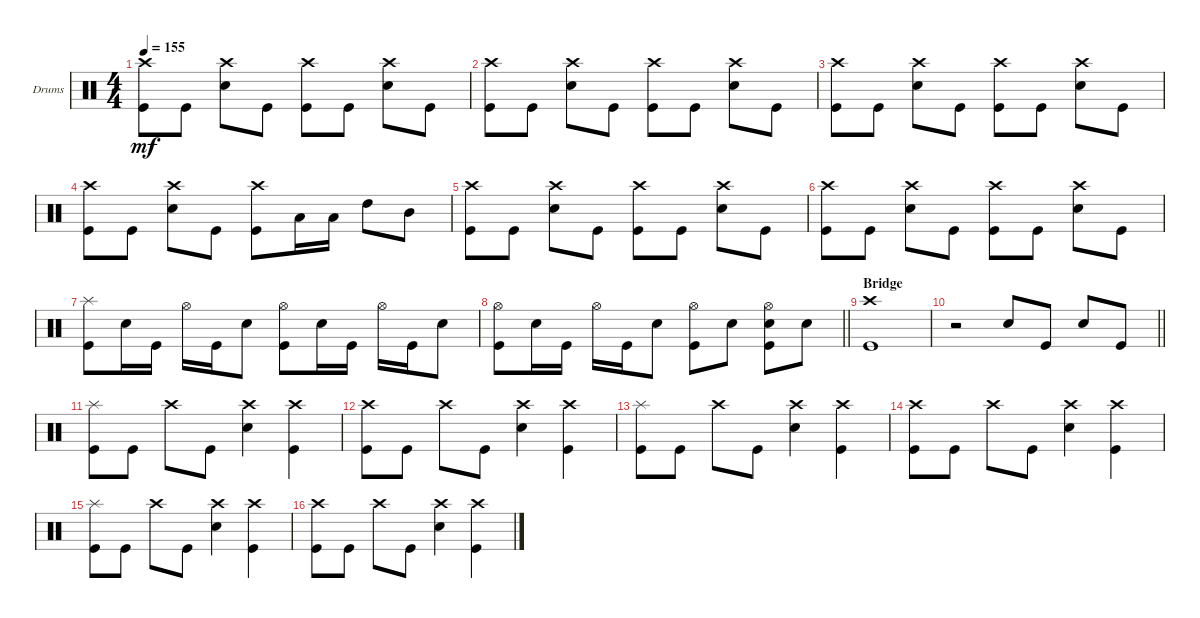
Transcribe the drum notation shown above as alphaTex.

\defaultSystemsLayout 4
\bracketExtendMode groupsimilarinstruments
\firstSystemTrackNameOrientation horizontal
\otherSystemsTrackNameOrientation horizontal
\track ("Drums" "Drums") {instrument percussion}
\staff {score}
\articulation defaults
\ts (4 4)
\tempo 155
\clef neutral
\ks c
("Kick (hit)" "Crash high (hit)").8{dy mf} "Kick (hit)".8 ("Snare (hit) 2" "Crash high (hit)").8 "Kick (hit)".8 ("Kick (hit)" "Crash high (hit)").8 "Kick (hit)".8 ("Snare (hit) 2" "Crash high (hit)").8 "Kick (hit)".8 |
("Kick (hit)" "Crash high (hit)").8 "Kick (hit)".8 ("Snare (hit) 2" "Crash high (hit)").8 "Kick (hit)".8 ("Kick (hit)" "Crash high (hit)").8 "Kick (hit)".8 ("Snare (hit) 2" "Crash high (hit)").8 "Kick (hit)".8 |
("Kick (hit)" "Crash high (hit)").8 "Kick (hit)".8 ("Snare (hit) 2" "Crash high (hit)").8 "Kick (hit)".8 ("Kick (hit)" "Crash high (hit)").8 "Kick (hit)".8 ("Snare (hit) 2" "Crash high (hit)").8 "Kick (hit)".8 |
("Kick (hit)" "Crash high (hit)").8 "Kick (hit)".8 ("Snare (hit) 2" "Crash high (hit)").8 "Kick (hit)".8 ("Kick (hit)" "Crash high (hit)").8 "Low Tom (hit)".16 "Low Tom (hit)".16 "High Tom (hit)".8 "Mid Tom (hit)".8 |
("Kick (hit)" "Crash high (hit)").8 "Kick (hit)".8 ("Snare (hit) 2" "Crash high (hit)").8 "Kick (hit)".8 ("Kick (hit)" "Crash high (hit)").8 "Kick (hit)".8 ("Snare (hit) 2" "Crash high (hit)").8 "Kick (hit)".8 |
("Kick (hit)" "Crash high (hit)").8 "Kick (hit)".8 ("Snare (hit) 2" "Crash high (hit)").8 "Kick (hit)".8 ("Kick (hit)" "Crash high (hit)").8 "Kick (hit)".8 ("Snare (hit) 2" "Crash high (hit)").8 "Kick (hit)".8 |
("Kick (hit)" "Splash (hit)").8 "Snare (hit) 2".16 "Kick (hit)".16 "Hi-Hat (open)".16 "Kick (hit)".16 "Snare (hit) 2".8 ("Kick (hit)" "Hi-Hat (open)").8 "Snare (hit) 2".16 "Kick (hit)".16 "Hi-Hat (open)".16 "Kick (hit)".16 "Snare (hit) 2".8 |
\barLineRight lightlight
("Kick (hit)" "Hi-Hat (open)").8 "Snare (hit) 2".16 "Kick (hit)".16 "Hi-Hat (open)".16 "Kick (hit)".16 "Snare (hit) 2".8 ("Kick (hit)" "Hi-Hat (open)").8 "Snare (hit) 2".8 ("Snare (hit) 2" "Kick (hit)" "Hi-Hat (open)").8 "Snare (hit) 2".8 |
\section ("" "Bridge")
("Kick (hit)" "Crash high (hit)").1 |
\barLineRight lightlight
r.2 "Snare (hit) 2".8 "Kick (hit)".8 "Snare (hit) 2".8 "Kick (hit)".8 |
("Kick (hit)" "Splash (hit)").8 "Kick (hit)".8 "Crash high (hit)".8 "Kick (hit)".8 ("Snare (hit) 2" "Crash high (hit)").4 ("Kick (hit)" "Crash high (hit)").4 |
("Kick (hit)" "Crash high (hit)").8 "Kick (hit)".8 "Crash high (hit)".8 "Kick (hit)".8 ("Snare (hit) 2" "Crash high (hit)").4 ("Kick (hit)" "Crash high (hit)").4 |
("Kick (hit)" "Splash (hit)").8 "Kick (hit)".8 "Crash high (hit)".8 "Kick (hit)".8 ("Snare (hit) 2" "Crash high (hit)").4 ("Kick (hit)" "Crash high (hit)").4 |
("Kick (hit)" "Crash high (hit)").8 "Kick (hit)".8 "Crash high (hit)".8 "Kick (hit)".8 ("Snare (hit) 2" "Crash high (hit)").4 ("Kick (hit)" "Crash high (hit)").4 |
("Kick (hit)" "Splash (hit)").8 "Kick (hit)".8 "Crash high (hit)".8 "Kick (hit)".8 ("Snare (hit) 2" "Crash high (hit)").4 ("Kick (hit)" "Crash high (hit)").4 |
("Kick (hit)" "Crash high (hit)").8 "Kick (hit)".8 "Crash high (hit)".8 "Kick (hit)".8 ("Snare (hit) 2" "Crash high (hit)").4 ("Kick (hit)" "Crash high (hit)").4
